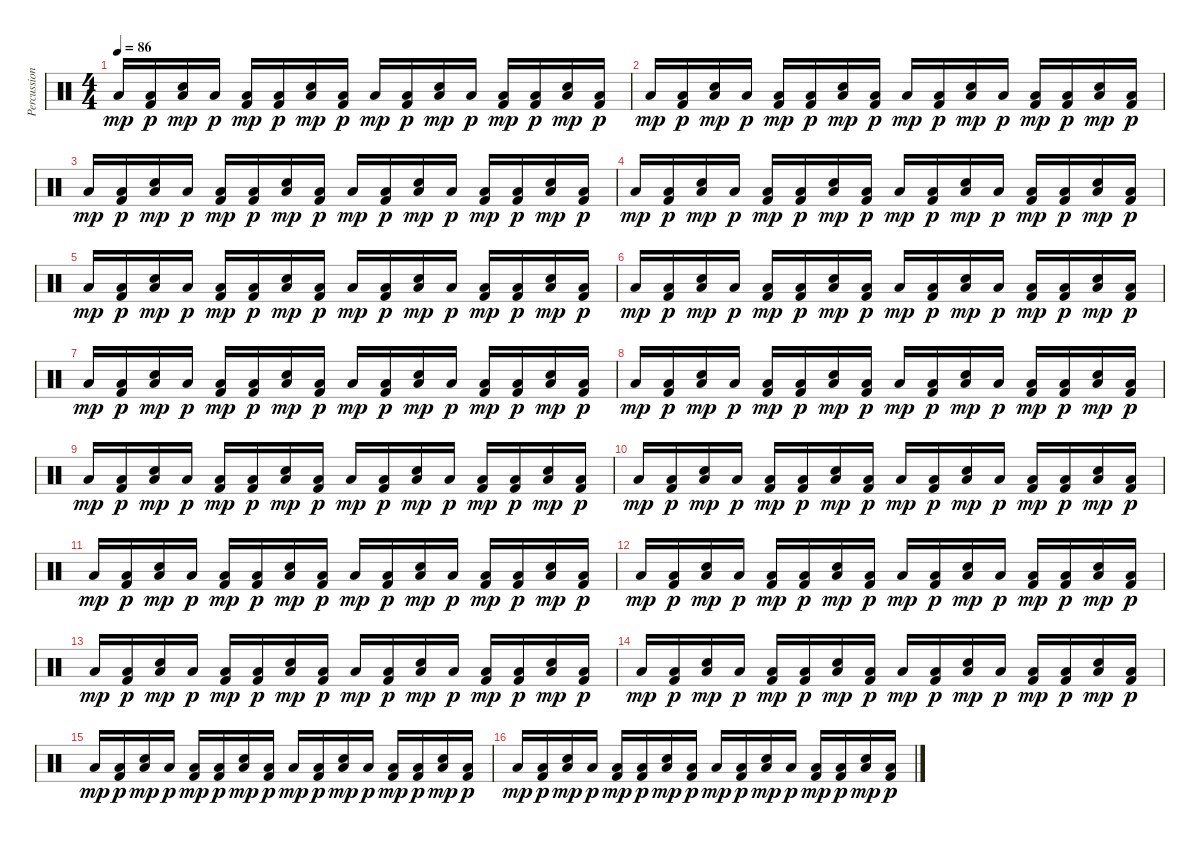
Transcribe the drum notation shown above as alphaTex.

\track ("Percussion" "Percussion") {instrument percussion}
\staff {score}
\articulation defaults
\ts (4 4)
\tempo 86
\clef neutral
\ks c "Low Floor Tom (hit)".16{dy mp}
("Low Floor Tom (hit)" "Kick (hit) 2").16{dy p} ("Low Floor Tom (hit)" "Electric Snare (hit)").16{dy mp} "Low Floor Tom (hit)".16{dy p} ("Low Floor Tom (hit)" "Kick (hit) 2").16{dy mp} ("Low Floor Tom (hit)" "Kick (hit) 2").16{dy p} ("Low Floor Tom (hit)" "Electric Snare (hit)").16{dy mp} ("Low Floor Tom (hit)" "Kick (hit) 2").16{dy p} "Low Floor Tom (hit)".16{dy mp} ("Low Floor Tom (hit)" "Kick (hit) 2").16{dy p} ("Low Floor Tom (hit)" "Electric Snare (hit)").16{dy mp} "Low Floor Tom (hit)".16{dy p} ("Low Floor Tom (hit)" "Kick (hit) 2").16{dy mp} ("Low Floor Tom (hit)" "Kick (hit) 2").16{dy p} ("Low Floor Tom (hit)" "Electric Snare (hit)").16{dy mp} ("Low Floor Tom (hit)" "Kick (hit) 2").16{dy p} |
"Low Floor Tom (hit)".16{dy mp} ("Low Floor Tom (hit)" "Kick (hit) 2").16{dy p} ("Low Floor Tom (hit)" "Electric Snare (hit)").16{dy mp} "Low Floor Tom (hit)".16{dy p} ("Low Floor Tom (hit)" "Kick (hit) 2").16{dy mp} ("Low Floor Tom (hit)" "Kick (hit) 2").16{dy p} ("Low Floor Tom (hit)" "Electric Snare (hit)").16{dy mp} ("Low Floor Tom (hit)" "Kick (hit) 2").16{dy p} "Low Floor Tom (hit)".16{dy mp} ("Low Floor Tom (hit)" "Kick (hit) 2").16{dy p} ("Low Floor Tom (hit)" "Electric Snare (hit)").16{dy mp} "Low Floor Tom (hit)".16{dy p} ("Low Floor Tom (hit)" "Kick (hit) 2").16{dy mp} ("Low Floor Tom (hit)" "Kick (hit) 2").16{dy p} ("Low Floor Tom (hit)" "Electric Snare (hit)").16{dy mp} ("Low Floor Tom (hit)" "Kick (hit) 2").16{dy p} |
"Low Floor Tom (hit)".16{dy mp} ("Low Floor Tom (hit)" "Kick (hit) 2").16{dy p} ("Low Floor Tom (hit)" "Electric Snare (hit)").16{dy mp} "Low Floor Tom (hit)".16{dy p} ("Low Floor Tom (hit)" "Kick (hit) 2").16{dy mp} ("Low Floor Tom (hit)" "Kick (hit) 2").16{dy p} ("Low Floor Tom (hit)" "Electric Snare (hit)").16{dy mp} ("Low Floor Tom (hit)" "Kick (hit) 2").16{dy p} "Low Floor Tom (hit)".16{dy mp} ("Low Floor Tom (hit)" "Kick (hit) 2").16{dy p} ("Low Floor Tom (hit)" "Electric Snare (hit)").16{dy mp} "Low Floor Tom (hit)".16{dy p} ("Low Floor Tom (hit)" "Kick (hit) 2").16{dy mp} ("Low Floor Tom (hit)" "Kick (hit) 2").16{dy p} ("Low Floor Tom (hit)" "Electric Snare (hit)").16{dy mp} ("Low Floor Tom (hit)" "Kick (hit) 2").16{dy p} |
"Low Floor Tom (hit)".16{dy mp} ("Low Floor Tom (hit)" "Kick (hit) 2").16{dy p} ("Low Floor Tom (hit)" "Electric Snare (hit)").16{dy mp} "Low Floor Tom (hit)".16{dy p} ("Low Floor Tom (hit)" "Kick (hit) 2").16{dy mp} ("Low Floor Tom (hit)" "Kick (hit) 2").16{dy p} ("Low Floor Tom (hit)" "Electric Snare (hit)").16{dy mp} ("Low Floor Tom (hit)" "Kick (hit) 2").16{dy p} "Low Floor Tom (hit)".16{dy mp} ("Low Floor Tom (hit)" "Kick (hit) 2").16{dy p} ("Low Floor Tom (hit)" "Electric Snare (hit)").16{dy mp} "Low Floor Tom (hit)".16{dy p} ("Low Floor Tom (hit)" "Kick (hit) 2").16{dy mp} ("Low Floor Tom (hit)" "Kick (hit) 2").16{dy p} ("Low Floor Tom (hit)" "Electric Snare (hit)").16{dy mp} ("Low Floor Tom (hit)" "Kick (hit) 2").16{dy p} |
"Low Floor Tom (hit)".16{dy mp} ("Low Floor Tom (hit)" "Kick (hit) 2").16{dy p} ("Low Floor Tom (hit)" "Electric Snare (hit)").16{dy mp} "Low Floor Tom (hit)".16{dy p} ("Low Floor Tom (hit)" "Kick (hit) 2").16{dy mp} ("Low Floor Tom (hit)" "Kick (hit) 2").16{dy p} ("Low Floor Tom (hit)" "Electric Snare (hit)").16{dy mp} ("Low Floor Tom (hit)" "Kick (hit) 2").16{dy p} "Low Floor Tom (hit)".16{dy mp} ("Low Floor Tom (hit)" "Kick (hit) 2").16{dy p} ("Low Floor Tom (hit)" "Electric Snare (hit)").16{dy mp} "Low Floor Tom (hit)".16{dy p} ("Low Floor Tom (hit)" "Kick (hit) 2").16{dy mp} ("Low Floor Tom (hit)" "Kick (hit) 2").16{dy p} ("Low Floor Tom (hit)" "Electric Snare (hit)").16{dy mp} ("Low Floor Tom (hit)" "Kick (hit) 2").16{dy p} |
"Low Floor Tom (hit)".16{dy mp} ("Low Floor Tom (hit)" "Kick (hit) 2").16{dy p} ("Low Floor Tom (hit)" "Electric Snare (hit)").16{dy mp} "Low Floor Tom (hit)".16{dy p} ("Low Floor Tom (hit)" "Kick (hit) 2").16{dy mp} ("Low Floor Tom (hit)" "Kick (hit) 2").16{dy p} ("Low Floor Tom (hit)" "Electric Snare (hit)").16{dy mp} ("Low Floor Tom (hit)" "Kick (hit) 2").16{dy p} "Low Floor Tom (hit)".16{dy mp} ("Low Floor Tom (hit)" "Kick (hit) 2").16{dy p} ("Low Floor Tom (hit)" "Electric Snare (hit)").16{dy mp} "Low Floor Tom (hit)".16{dy p} ("Low Floor Tom (hit)" "Kick (hit) 2").16{dy mp} ("Low Floor Tom (hit)" "Kick (hit) 2").16{dy p} ("Low Floor Tom (hit)" "Electric Snare (hit)").16{dy mp} ("Low Floor Tom (hit)" "Kick (hit) 2").16{dy p} |
"Low Floor Tom (hit)".16{dy mp} ("Low Floor Tom (hit)" "Kick (hit) 2").16{dy p} ("Low Floor Tom (hit)" "Electric Snare (hit)").16{dy mp} "Low Floor Tom (hit)".16{dy p} ("Low Floor Tom (hit)" "Kick (hit) 2").16{dy mp} ("Low Floor Tom (hit)" "Kick (hit) 2").16{dy p} ("Low Floor Tom (hit)" "Electric Snare (hit)").16{dy mp} ("Low Floor Tom (hit)" "Kick (hit) 2").16{dy p} "Low Floor Tom (hit)".16{dy mp} ("Low Floor Tom (hit)" "Kick (hit) 2").16{dy p} ("Low Floor Tom (hit)" "Electric Snare (hit)").16{dy mp} "Low Floor Tom (hit)".16{dy p} ("Low Floor Tom (hit)" "Kick (hit) 2").16{dy mp} ("Low Floor Tom (hit)" "Kick (hit) 2").16{dy p} ("Low Floor Tom (hit)" "Electric Snare (hit)").16{dy mp} ("Low Floor Tom (hit)" "Kick (hit) 2").16{dy p} |
"Low Floor Tom (hit)".16{dy mp} ("Low Floor Tom (hit)" "Kick (hit) 2").16{dy p} ("Low Floor Tom (hit)" "Electric Snare (hit)").16{dy mp} "Low Floor Tom (hit)".16{dy p} ("Low Floor Tom (hit)" "Kick (hit) 2").16{dy mp} ("Low Floor Tom (hit)" "Kick (hit) 2").16{dy p} ("Low Floor Tom (hit)" "Electric Snare (hit)").16{dy mp} ("Low Floor Tom (hit)" "Kick (hit) 2").16{dy p} "Low Floor Tom (hit)".16{dy mp} ("Low Floor Tom (hit)" "Kick (hit) 2").16{dy p} ("Low Floor Tom (hit)" "Electric Snare (hit)").16{dy mp} "Low Floor Tom (hit)".16{dy p} ("Low Floor Tom (hit)" "Kick (hit) 2").16{dy mp} ("Low Floor Tom (hit)" "Kick (hit) 2").16{dy p} ("Low Floor Tom (hit)" "Electric Snare (hit)").16{dy mp} ("Low Floor Tom (hit)" "Kick (hit) 2").16{dy p} |
"Low Floor Tom (hit)".16{dy mp} ("Low Floor Tom (hit)" "Kick (hit) 2").16{dy p} ("Low Floor Tom (hit)" "Electric Snare (hit)").16{dy mp} "Low Floor Tom (hit)".16{dy p} ("Low Floor Tom (hit)" "Kick (hit) 2").16{dy mp} ("Low Floor Tom (hit)" "Kick (hit) 2").16{dy p} ("Low Floor Tom (hit)" "Electric Snare (hit)").16{dy mp} ("Low Floor Tom (hit)" "Kick (hit) 2").16{dy p} "Low Floor Tom (hit)".16{dy mp} ("Low Floor Tom (hit)" "Kick (hit) 2").16{dy p} ("Low Floor Tom (hit)" "Electric Snare (hit)").16{dy mp} "Low Floor Tom (hit)".16{dy p} ("Low Floor Tom (hit)" "Kick (hit) 2").16{dy mp} ("Low Floor Tom (hit)" "Kick (hit) 2").16{dy p} ("Low Floor Tom (hit)" "Electric Snare (hit)").16{dy mp} ("Low Floor Tom (hit)" "Kick (hit) 2").16{dy p} |
"Low Floor Tom (hit)".16{dy mp} ("Low Floor Tom (hit)" "Kick (hit) 2").16{dy p} ("Low Floor Tom (hit)" "Electric Snare (hit)").16{dy mp} "Low Floor Tom (hit)".16{dy p} ("Low Floor Tom (hit)" "Kick (hit) 2").16{dy mp} ("Low Floor Tom (hit)" "Kick (hit) 2").16{dy p} ("Low Floor Tom (hit)" "Electric Snare (hit)").16{dy mp} ("Low Floor Tom (hit)" "Kick (hit) 2").16{dy p} "Low Floor Tom (hit)".16{dy mp} ("Low Floor Tom (hit)" "Kick (hit) 2").16{dy p} ("Low Floor Tom (hit)" "Electric Snare (hit)").16{dy mp} "Low Floor Tom (hit)".16{dy p} ("Low Floor Tom (hit)" "Kick (hit) 2").16{dy mp} ("Low Floor Tom (hit)" "Kick (hit) 2").16{dy p} ("Low Floor Tom (hit)" "Electric Snare (hit)").16{dy mp} ("Low Floor Tom (hit)" "Kick (hit) 2").16{dy p} |
"Low Floor Tom (hit)".16{dy mp} ("Low Floor Tom (hit)" "Kick (hit) 2").16{dy p} ("Low Floor Tom (hit)" "Electric Snare (hit)").16{dy mp} "Low Floor Tom (hit)".16{dy p} ("Low Floor Tom (hit)" "Kick (hit) 2").16{dy mp} ("Low Floor Tom (hit)" "Kick (hit) 2").16{dy p} ("Low Floor Tom (hit)" "Electric Snare (hit)").16{dy mp} ("Low Floor Tom (hit)" "Kick (hit) 2").16{dy p} "Low Floor Tom (hit)".16{dy mp} ("Low Floor Tom (hit)" "Kick (hit) 2").16{dy p} ("Low Floor Tom (hit)" "Electric Snare (hit)").16{dy mp} "Low Floor Tom (hit)".16{dy p} ("Low Floor Tom (hit)" "Kick (hit) 2").16{dy mp} ("Low Floor Tom (hit)" "Kick (hit) 2").16{dy p} ("Low Floor Tom (hit)" "Electric Snare (hit)").16{dy mp} ("Low Floor Tom (hit)" "Kick (hit) 2").16{dy p} |
"Low Floor Tom (hit)".16{dy mp} ("Low Floor Tom (hit)" "Kick (hit) 2").16{dy p} ("Low Floor Tom (hit)" "Electric Snare (hit)").16{dy mp} "Low Floor Tom (hit)".16{dy p} ("Low Floor Tom (hit)" "Kick (hit) 2").16{dy mp} ("Low Floor Tom (hit)" "Kick (hit) 2").16{dy p} ("Low Floor Tom (hit)" "Electric Snare (hit)").16{dy mp} ("Low Floor Tom (hit)" "Kick (hit) 2").16{dy p} "Low Floor Tom (hit)".16{dy mp} ("Low Floor Tom (hit)" "Kick (hit) 2").16{dy p} ("Low Floor Tom (hit)" "Electric Snare (hit)").16{dy mp} "Low Floor Tom (hit)".16{dy p} ("Low Floor Tom (hit)" "Kick (hit) 2").16{dy mp} ("Low Floor Tom (hit)" "Kick (hit) 2").16{dy p} ("Low Floor Tom (hit)" "Electric Snare (hit)").16{dy mp} ("Low Floor Tom (hit)" "Kick (hit) 2").16{dy p} |
"Low Floor Tom (hit)".16{dy mp} ("Low Floor Tom (hit)" "Kick (hit) 2").16{dy p} ("Low Floor Tom (hit)" "Electric Snare (hit)").16{dy mp} "Low Floor Tom (hit)".16{dy p} ("Low Floor Tom (hit)" "Kick (hit) 2").16{dy mp} ("Low Floor Tom (hit)" "Kick (hit) 2").16{dy p} ("Low Floor Tom (hit)" "Electric Snare (hit)").16{dy mp} ("Low Floor Tom (hit)" "Kick (hit) 2").16{dy p} "Low Floor Tom (hit)".16{dy mp} ("Low Floor Tom (hit)" "Kick (hit) 2").16{dy p} ("Low Floor Tom (hit)" "Electric Snare (hit)").16{dy mp} "Low Floor Tom (hit)".16{dy p} ("Low Floor Tom (hit)" "Kick (hit) 2").16{dy mp} ("Low Floor Tom (hit)" "Kick (hit) 2").16{dy p} ("Low Floor Tom (hit)" "Electric Snare (hit)").16{dy mp} ("Low Floor Tom (hit)" "Kick (hit) 2").16{dy p} |
"Low Floor Tom (hit)".16{dy mp} ("Low Floor Tom (hit)" "Kick (hit) 2").16{dy p} ("Low Floor Tom (hit)" "Electric Snare (hit)").16{dy mp} "Low Floor Tom (hit)".16{dy p} ("Low Floor Tom (hit)" "Kick (hit) 2").16{dy mp} ("Low Floor Tom (hit)" "Kick (hit) 2").16{dy p} ("Low Floor Tom (hit)" "Electric Snare (hit)").16{dy mp} ("Low Floor Tom (hit)" "Kick (hit) 2").16{dy p} "Low Floor Tom (hit)".16{dy mp} ("Low Floor Tom (hit)" "Kick (hit) 2").16{dy p} ("Low Floor Tom (hit)" "Electric Snare (hit)").16{dy mp} "Low Floor Tom (hit)".16{dy p} ("Low Floor Tom (hit)" "Kick (hit) 2").16{dy mp} ("Low Floor Tom (hit)" "Kick (hit) 2").16{dy p} ("Low Floor Tom (hit)" "Electric Snare (hit)").16{dy mp} ("Low Floor Tom (hit)" "Kick (hit) 2").16{dy p} |
"Low Floor Tom (hit)".16{dy mp} ("Low Floor Tom (hit)" "Kick (hit) 2").16{dy p} ("Low Floor Tom (hit)" "Electric Snare (hit)").16{dy mp} "Low Floor Tom (hit)".16{dy p} ("Low Floor Tom (hit)" "Kick (hit) 2").16{dy mp} ("Low Floor Tom (hit)" "Kick (hit) 2").16{dy p} ("Low Floor Tom (hit)" "Electric Snare (hit)").16{dy mp} ("Low Floor Tom (hit)" "Kick (hit) 2").16{dy p} "Low Floor Tom (hit)".16{dy mp} ("Low Floor Tom (hit)" "Kick (hit) 2").16{dy p} ("Low Floor Tom (hit)" "Electric Snare (hit)").16{dy mp} "Low Floor Tom (hit)".16{dy p} ("Low Floor Tom (hit)" "Kick (hit) 2").16{dy mp} ("Low Floor Tom (hit)" "Kick (hit) 2").16{dy p} ("Low Floor Tom (hit)" "Electric Snare (hit)").16{dy mp} ("Low Floor Tom (hit)" "Kick (hit) 2").16{dy p} |
"Low Floor Tom (hit)".16{dy mp} ("Low Floor Tom (hit)" "Kick (hit) 2").16{dy p} ("Low Floor Tom (hit)" "Electric Snare (hit)").16{dy mp} "Low Floor Tom (hit)".16{dy p} ("Low Floor Tom (hit)" "Kick (hit) 2").16{dy mp} ("Low Floor Tom (hit)" "Kick (hit) 2").16{dy p} ("Low Floor Tom (hit)" "Electric Snare (hit)").16{dy mp} ("Low Floor Tom (hit)" "Kick (hit) 2").16{dy p} "Low Floor Tom (hit)".16{dy mp} ("Low Floor Tom (hit)" "Kick (hit) 2").16{dy p} ("Low Floor Tom (hit)" "Electric Snare (hit)").16{dy mp} "Low Floor Tom (hit)".16{dy p} ("Low Floor Tom (hit)" "Kick (hit) 2").16{dy mp} ("Low Floor Tom (hit)" "Kick (hit) 2").16{dy p} ("Low Floor Tom (hit)" "Electric Snare (hit)").16{dy mp} ("Low Floor Tom (hit)" "Kick (hit) 2").16{dy p}
